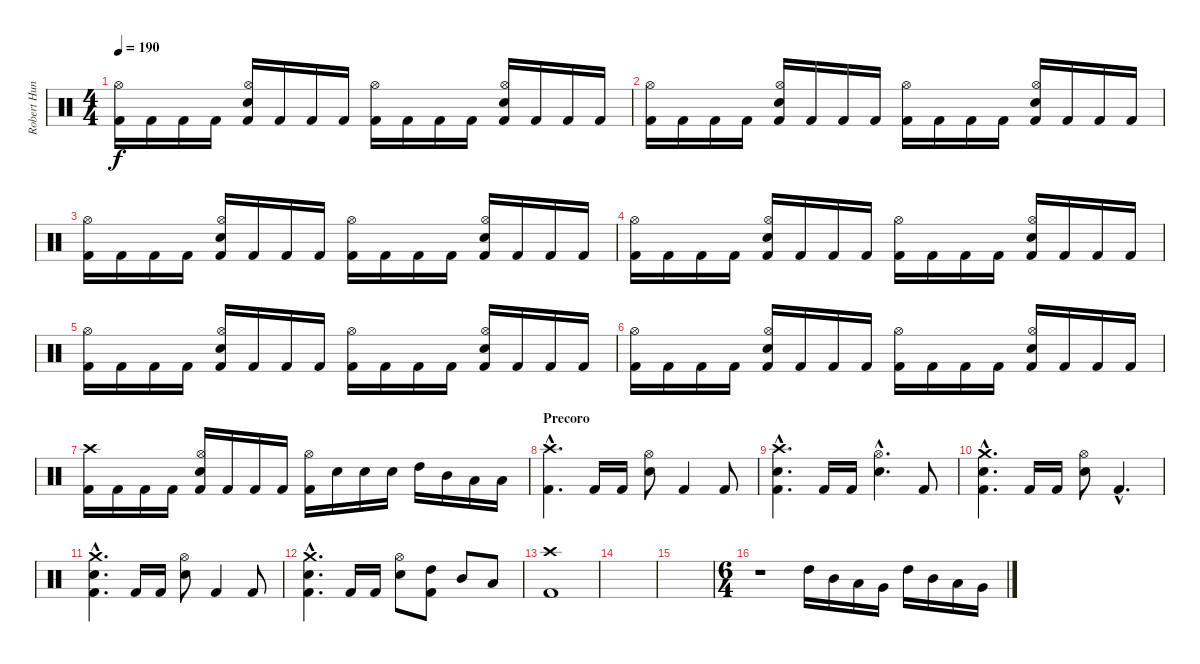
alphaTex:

\track ("Robert Hunecke" "Robert Hun") {instrument percussion}
\staff {score}
\articulation defaults
\ts (4 4)
\tempo 190
\clef neutral
\ks c
("Kick (hit) 2" "Hi-Hat (open)").16{dy f} "Kick (hit) 2".16 "Kick (hit) 2".16 "Kick (hit) 2".16 ("Kick (hit) 2" "Electric Snare (hit)" "Hi-Hat (open)").16 "Kick (hit) 2".16 "Kick (hit) 2".16 "Kick (hit) 2".16 ("Kick (hit) 2" "Hi-Hat (open)").16 "Kick (hit) 2".16 "Kick (hit) 2".16 "Kick (hit) 2".16 ("Kick (hit) 2" "Electric Snare (hit)" "Hi-Hat (open)").16 "Kick (hit) 2".16 "Kick (hit) 2".16 "Kick (hit) 2".16 |
("Kick (hit) 2" "Hi-Hat (open)").16 "Kick (hit) 2".16 "Kick (hit) 2".16 "Kick (hit) 2".16 ("Kick (hit) 2" "Electric Snare (hit)" "Hi-Hat (open)").16 "Kick (hit) 2".16 "Kick (hit) 2".16 "Kick (hit) 2".16 ("Kick (hit) 2" "Hi-Hat (open)").16 "Kick (hit) 2".16 "Kick (hit) 2".16 "Kick (hit) 2".16 ("Kick (hit) 2" "Electric Snare (hit)" "Hi-Hat (open)").16 "Kick (hit) 2".16 "Kick (hit) 2".16 "Kick (hit) 2".16 |
("Kick (hit) 2" "Hi-Hat (open)").16 "Kick (hit) 2".16 "Kick (hit) 2".16 "Kick (hit) 2".16 ("Kick (hit) 2" "Electric Snare (hit)" "Hi-Hat (open)").16 "Kick (hit) 2".16 "Kick (hit) 2".16 "Kick (hit) 2".16 ("Kick (hit) 2" "Hi-Hat (open)").16 "Kick (hit) 2".16 "Kick (hit) 2".16 "Kick (hit) 2".16 ("Kick (hit) 2" "Electric Snare (hit)" "Hi-Hat (open)").16 "Kick (hit) 2".16 "Kick (hit) 2".16 "Kick (hit) 2".16 |
("Kick (hit) 2" "Hi-Hat (open)").16 "Kick (hit) 2".16 "Kick (hit) 2".16 "Kick (hit) 2".16 ("Kick (hit) 2" "Electric Snare (hit)" "Hi-Hat (open)").16 "Kick (hit) 2".16 "Kick (hit) 2".16 "Kick (hit) 2".16 ("Kick (hit) 2" "Hi-Hat (open)").16 "Kick (hit) 2".16 "Kick (hit) 2".16 "Kick (hit) 2".16 ("Kick (hit) 2" "Electric Snare (hit)" "Hi-Hat (open)").16 "Kick (hit) 2".16 "Kick (hit) 2".16 "Kick (hit) 2".16 |
("Kick (hit) 2" "Hi-Hat (open)").16 "Kick (hit) 2".16 "Kick (hit) 2".16 "Kick (hit) 2".16 ("Kick (hit) 2" "Electric Snare (hit)" "Hi-Hat (open)").16 "Kick (hit) 2".16 "Kick (hit) 2".16 "Kick (hit) 2".16 ("Kick (hit) 2" "Hi-Hat (open)").16 "Kick (hit) 2".16 "Kick (hit) 2".16 "Kick (hit) 2".16 ("Kick (hit) 2" "Electric Snare (hit)" "Hi-Hat (open)").16 "Kick (hit) 2".16 "Kick (hit) 2".16 "Kick (hit) 2".16 |
("Kick (hit) 2" "Hi-Hat (open)").16 "Kick (hit) 2".16 "Kick (hit) 2".16 "Kick (hit) 2".16 ("Kick (hit) 2" "Electric Snare (hit)" "Hi-Hat (open)").16 "Kick (hit) 2".16 "Kick (hit) 2".16 "Kick (hit) 2".16 ("Kick (hit) 2" "Hi-Hat (open)").16 "Kick (hit) 2".16 "Kick (hit) 2".16 "Kick (hit) 2".16 ("Kick (hit) 2" "Electric Snare (hit)" "Hi-Hat (open)").16 "Kick (hit) 2".16 "Kick (hit) 2".16 "Kick (hit) 2".16 |
("Kick (hit) 2" "Crash high (hit)").16 "Kick (hit) 2".16 "Kick (hit) 2".16 "Kick (hit) 2".16 ("Kick (hit) 2" "Electric Snare (hit)" "Hi-Hat (open)").16 "Kick (hit) 2".16 "Kick (hit) 2".16 "Kick (hit) 2".16 ("Kick (hit) 2" "Hi-Hat (open)").16 "Electric Snare (hit)".16 "Electric Snare (hit)".16 "Electric Snare (hit)".16 "High Tom (hit)".16 "Mid Tom (hit)".16 "Low Tom (hit)".16 "Low Tom (hit)".16 |
\section ("" "Precoro")
("Kick (hit) 2"{hac} "Crash high (hit)"{hac}).4{d} "Kick (hit) 2".16 "Kick (hit) 2".16 ("Electric Snare (hit)" "Hi-Hat (open)").8 "Kick (hit) 2".4 "Kick (hit) 2".8 |
("Kick (hit) 2"{hac} "Electric Snare (hit)"{hac} "Crash high (hit)"{hac}).4{d} "Kick (hit) 2".16 "Kick (hit) 2".16 ("Electric Snare (hit)"{hac} "Hi-Hat (open)"{hac}).4{d} "Kick (hit) 2".8 |
("Kick (hit) 2"{hac} "Electric Snare (hit)"{hac} "Crash medium (hit)"{hac}).4{d} "Kick (hit) 2".16 "Kick (hit) 2".16 ("Electric Snare (hit)" "Hi-Hat (open)").8 "Kick (hit) 2"{hac}.4{d} |
("Kick (hit) 2"{hac} "Electric Snare (hit)"{hac} "Crash medium (hit)"{hac}).4{d} "Kick (hit) 2".16 "Kick (hit) 2".16 ("Electric Snare (hit)" "Hi-Hat (open)").8 "Kick (hit) 2".4 "Kick (hit) 2".8 |
("Kick (hit) 2"{hac} "Electric Snare (hit)"{hac} "Crash medium (hit)"{hac}).4{d} "Kick (hit) 2".16 "Kick (hit) 2".16 ("Electric Snare (hit)" "Hi-Hat (open)").8 ("Kick (hit) 2" "High Tom (hit)").8 "Mid Tom (hit)".8 "Low Tom (hit)".8 |
\section ("" "")
("Kick (hit) 2" "Crash high (hit)").1 |
|
|
\ts (6 4)
r.1 "High Tom (hit)".16 "Mid Tom (hit)".16 "Low Tom (hit)".16 "Very Low Tom (hit)".16 "High Tom (hit)".16 "Mid Tom (hit)".16 "Low Tom (hit)".16 "Very Low Tom (hit)".16
